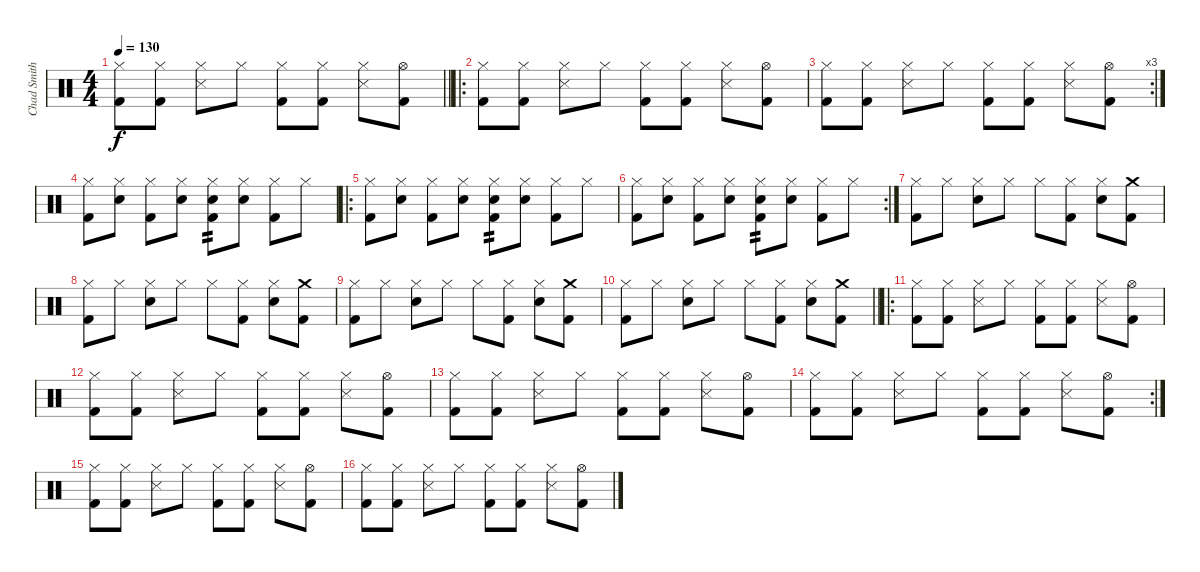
\track ("Chad Smith" "Chad Smith") {instrument percussion}
\staff {score}
\articulation defaults
\ts (4 4)
\tempo 130
\clef neutral
\barLineRight lightlight
\ks c
("Hi-Hat (closed)" "Kick (hit) 2").8{dy f} ("Hi-Hat (closed)" "Kick (hit) 2").8 ("Hi-Hat (closed)" "Snare (side stick) 3").8 "Hi-Hat (closed)".8 ("Hi-Hat (closed)" "Kick (hit) 2").8 ("Hi-Hat (closed)" "Kick (hit) 2").8 ("Hi-Hat (closed)" "Snare (side stick) 3").8 ("Hi-Hat (open)" "Kick (hit) 2").8 |
\ro
("Hi-Hat (closed)" "Kick (hit) 2").8 ("Hi-Hat (closed)" "Kick (hit) 2").8 ("Hi-Hat (closed)" "Snare (side stick) 3").8 "Hi-Hat (closed)".8 ("Hi-Hat (closed)" "Kick (hit) 2").8 ("Hi-Hat (closed)" "Kick (hit) 2").8 ("Hi-Hat (closed)" "Snare (side stick) 3").8 ("Hi-Hat (open)" "Kick (hit) 2").8 |
\rc 3
("Hi-Hat (closed)" "Kick (hit) 2").8 ("Hi-Hat (closed)" "Kick (hit) 2").8 ("Hi-Hat (closed)" "Snare (side stick) 3").8 "Hi-Hat (closed)".8 ("Hi-Hat (closed)" "Kick (hit) 2").8 ("Hi-Hat (closed)" "Kick (hit) 2").8 ("Hi-Hat (closed)" "Snare (side stick) 3").8 ("Hi-Hat (open)" "Kick (hit) 2").8 |
("Hi-Hat (closed)" "Kick (hit) 2").8 ("Hi-Hat (closed)" "Electric Snare (hit)").8 ("Hi-Hat (closed)" "Kick (hit) 2").8 ("Hi-Hat (closed)" "Electric Snare (hit)").8 ("Hi-Hat (closed)" "Electric Snare (hit)" "Kick (hit) 2").8{tp 2} ("Hi-Hat (closed)" "Electric Snare (hit)").8 ("Hi-Hat (closed)" "Kick (hit) 2").8 "Hi-Hat (closed)".8 |
\ro
("Hi-Hat (closed)" "Kick (hit) 2").8 ("Hi-Hat (closed)" "Electric Snare (hit)").8 ("Hi-Hat (closed)" "Kick (hit) 2").8 ("Hi-Hat (closed)" "Electric Snare (hit)").8 ("Hi-Hat (closed)" "Electric Snare (hit)" "Kick (hit) 2").8{tp 2} ("Hi-Hat (closed)" "Electric Snare (hit)").8 ("Hi-Hat (closed)" "Kick (hit) 2").8 "Hi-Hat (closed)".8 |
\rc 2
("Hi-Hat (closed)" "Kick (hit) 2").8 ("Hi-Hat (closed)" "Electric Snare (hit)").8 ("Hi-Hat (closed)" "Kick (hit) 2").8 ("Hi-Hat (closed)" "Electric Snare (hit)").8 ("Hi-Hat (closed)" "Electric Snare (hit)" "Kick (hit) 2").8{tp 2} ("Hi-Hat (closed)" "Electric Snare (hit)").8 ("Hi-Hat (closed)" "Kick (hit) 2").8 "Hi-Hat (closed)".8 |
("Hi-Hat (closed)" "Kick (hit) 2").8 "Hi-Hat (closed)".8 ("Hi-Hat (closed)" "Electric Snare (hit)").8 "Hi-Hat (closed)".8 "Hi-Hat (closed)".8 ("Hi-Hat (closed)" "Kick (hit) 2").8 ("Hi-Hat (closed)" "Electric Snare (hit)").8 ("Crash medium (hit)" "Kick (hit) 2").8 |
("Hi-Hat (closed)" "Kick (hit) 2").8 "Hi-Hat (closed)".8 ("Hi-Hat (closed)" "Electric Snare (hit)").8 "Hi-Hat (closed)".8 "Hi-Hat (closed)".8 ("Hi-Hat (closed)" "Kick (hit) 2").8 ("Hi-Hat (closed)" "Electric Snare (hit)").8 ("Crash medium (hit)" "Kick (hit) 2").8 |
("Hi-Hat (closed)" "Kick (hit) 2").8 "Hi-Hat (closed)".8 ("Hi-Hat (closed)" "Electric Snare (hit)").8 "Hi-Hat (closed)".8 "Hi-Hat (closed)".8 ("Hi-Hat (closed)" "Kick (hit) 2").8 ("Hi-Hat (closed)" "Electric Snare (hit)").8 ("Crash medium (hit)" "Kick (hit) 2").8 |
\barLineRight lightlight
("Hi-Hat (closed)" "Kick (hit) 2").8 "Hi-Hat (closed)".8 ("Hi-Hat (closed)" "Electric Snare (hit)").8 "Hi-Hat (closed)".8 "Hi-Hat (closed)".8 ("Hi-Hat (closed)" "Kick (hit) 2").8 ("Hi-Hat (closed)" "Electric Snare (hit)").8 ("Crash medium (hit)" "Kick (hit) 2").8 |
\ro
("Hi-Hat (closed)" "Kick (hit) 2").8 ("Hi-Hat (closed)" "Kick (hit) 2").8 ("Hi-Hat (closed)" "Snare (side stick) 3").8 "Hi-Hat (closed)".8 ("Hi-Hat (closed)" "Kick (hit) 2").8 ("Hi-Hat (closed)" "Kick (hit) 2").8 ("Hi-Hat (closed)" "Snare (side stick) 3").8 ("Hi-Hat (open)" "Kick (hit) 2").8 |
("Hi-Hat (closed)" "Kick (hit) 2").8 ("Hi-Hat (closed)" "Kick (hit) 2").8 ("Hi-Hat (closed)" "Snare (side stick) 3").8 "Hi-Hat (closed)".8 ("Hi-Hat (closed)" "Kick (hit) 2").8 ("Hi-Hat (closed)" "Kick (hit) 2").8 ("Hi-Hat (closed)" "Snare (side stick) 3").8 ("Hi-Hat (open)" "Kick (hit) 2").8 |
("Hi-Hat (closed)" "Kick (hit) 2").8 ("Hi-Hat (closed)" "Kick (hit) 2").8 ("Hi-Hat (closed)" "Snare (side stick) 3").8 "Hi-Hat (closed)".8 ("Hi-Hat (closed)" "Kick (hit) 2").8 ("Hi-Hat (closed)" "Kick (hit) 2").8 ("Hi-Hat (closed)" "Snare (side stick) 3").8 ("Hi-Hat (open)" "Kick (hit) 2").8 |
\rc 2
("Hi-Hat (closed)" "Kick (hit) 2").8 ("Hi-Hat (closed)" "Kick (hit) 2").8 ("Hi-Hat (closed)" "Snare (side stick) 3").8 "Hi-Hat (closed)".8 ("Hi-Hat (closed)" "Kick (hit) 2").8 ("Hi-Hat (closed)" "Kick (hit) 2").8 ("Hi-Hat (closed)" "Snare (side stick) 3").8 ("Hi-Hat (open)" "Kick (hit) 2").8 |
("Hi-Hat (closed)" "Kick (hit) 2").8 ("Hi-Hat (closed)" "Kick (hit) 2").8 ("Hi-Hat (closed)" "Snare (side stick) 3").8 "Hi-Hat (closed)".8 ("Hi-Hat (closed)" "Kick (hit) 2").8 ("Hi-Hat (closed)" "Kick (hit) 2").8 ("Hi-Hat (closed)" "Snare (side stick) 3").8 ("Hi-Hat (open)" "Kick (hit) 2").8 |
("Hi-Hat (closed)" "Kick (hit) 2").8 ("Hi-Hat (closed)" "Kick (hit) 2").8 ("Hi-Hat (closed)" "Snare (side stick) 3").8 "Hi-Hat (closed)".8 ("Hi-Hat (closed)" "Kick (hit) 2").8 ("Hi-Hat (closed)" "Kick (hit) 2").8 ("Hi-Hat (closed)" "Snare (side stick) 3").8 ("Hi-Hat (open)" "Kick (hit) 2").8
